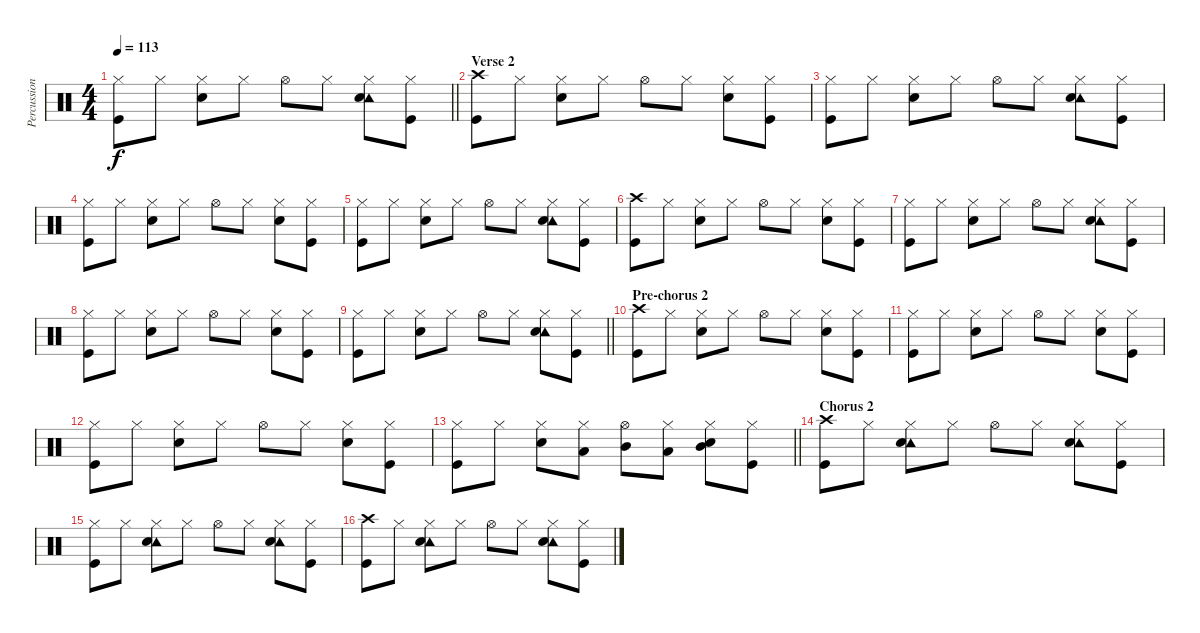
\track ("Percussion" "Percussion") {instrument percussion}
\staff {score}
\articulation defaults
\ts (4 4)
\tempo 113
\clef neutral
\barLineRight lightlight
\ks c
("Hi-Hat (closed)" "Kick (hit)").8{dy f} "Hi-Hat (closed)".8 ("Hi-Hat (closed)" "Snare (hit) 2").8 "Hi-Hat (closed)".8 "Hi-Hat (open)".8 "Hi-Hat (closed)".8 ("Hi-Hat (closed)" "Tambourine (hit)" "Snare (hit) 2").8 ("Hi-Hat (closed)" "Kick (hit)").8 |
\section ("" "Verse 2")
("Crash high (hit)" "Kick (hit)").8 "Hi-Hat (closed)".8 ("Hi-Hat (closed)" "Snare (hit) 2").8 "Hi-Hat (closed)".8 "Hi-Hat (open)".8 "Hi-Hat (closed)".8 ("Hi-Hat (closed)" "Snare (hit) 2").8 ("Hi-Hat (closed)" "Kick (hit)").8 |
("Hi-Hat (closed)" "Kick (hit)").8 "Hi-Hat (closed)".8 ("Hi-Hat (closed)" "Snare (hit) 2").8 "Hi-Hat (closed)".8 "Hi-Hat (open)".8 "Hi-Hat (closed)".8 ("Hi-Hat (closed)" "Tambourine (hit)" "Snare (hit) 2").8 ("Hi-Hat (closed)" "Kick (hit)").8 |
("Hi-Hat (closed)" "Kick (hit)").8 "Hi-Hat (closed)".8 ("Hi-Hat (closed)" "Snare (hit) 2").8 "Hi-Hat (closed)".8 "Hi-Hat (open)".8 "Hi-Hat (closed)".8 ("Hi-Hat (closed)" "Snare (hit) 2").8 ("Hi-Hat (closed)" "Kick (hit)").8 |
("Hi-Hat (closed)" "Kick (hit)").8 "Hi-Hat (closed)".8 ("Hi-Hat (closed)" "Snare (hit) 2").8 "Hi-Hat (closed)".8 "Hi-Hat (open)".8 "Hi-Hat (closed)".8 ("Hi-Hat (closed)" "Tambourine (hit)" "Snare (hit) 2").8 ("Hi-Hat (closed)" "Kick (hit)").8 |
("Crash high (hit)" "Kick (hit)").8 "Hi-Hat (closed)".8 ("Hi-Hat (closed)" "Snare (hit) 2").8 "Hi-Hat (closed)".8 "Hi-Hat (open)".8 "Hi-Hat (closed)".8 ("Hi-Hat (closed)" "Snare (hit) 2").8 ("Hi-Hat (closed)" "Kick (hit)").8 |
("Hi-Hat (closed)" "Kick (hit)").8 "Hi-Hat (closed)".8 ("Hi-Hat (closed)" "Snare (hit) 2").8 "Hi-Hat (closed)".8 "Hi-Hat (open)".8 "Hi-Hat (closed)".8 ("Hi-Hat (closed)" "Tambourine (hit)" "Snare (hit) 2").8 ("Hi-Hat (closed)" "Kick (hit)").8 |
("Hi-Hat (closed)" "Kick (hit)").8 "Hi-Hat (closed)".8 ("Hi-Hat (closed)" "Snare (hit) 2").8 "Hi-Hat (closed)".8 "Hi-Hat (open)".8 "Hi-Hat (closed)".8 ("Hi-Hat (closed)" "Snare (hit) 2").8 ("Hi-Hat (closed)" "Kick (hit)").8 |
\barLineRight lightlight
("Hi-Hat (closed)" "Kick (hit)").8 "Hi-Hat (closed)".8 ("Hi-Hat (closed)" "Snare (hit) 2").8 "Hi-Hat (closed)".8 "Hi-Hat (open)".8 "Hi-Hat (closed)".8 ("Hi-Hat (closed)" "Tambourine (hit)" "Snare (hit) 2").8 ("Hi-Hat (closed)" "Kick (hit)").8 |
\section ("" "Pre-chorus 2")
("Crash high (hit)" "Kick (hit)").8 "Hi-Hat (closed)".8 ("Hi-Hat (closed)" "Snare (hit) 2").8 "Hi-Hat (closed)".8 "Hi-Hat (open)".8 "Hi-Hat (closed)".8 ("Hi-Hat (closed)" "Snare (hit) 2").8 ("Hi-Hat (closed)" "Kick (hit)").8 |
("Hi-Hat (closed)" "Kick (hit)").8 "Hi-Hat (closed)".8 ("Hi-Hat (closed)" "Snare (hit) 2").8 "Hi-Hat (closed)".8 "Hi-Hat (open)".8 "Hi-Hat (closed)".8 ("Hi-Hat (closed)" "Snare (hit) 2").8 ("Hi-Hat (closed)" "Kick (hit)").8 |
("Hi-Hat (closed)" "Kick (hit)").8 "Hi-Hat (closed)".8 ("Hi-Hat (closed)" "Snare (hit) 2").8 "Hi-Hat (closed)".8 "Hi-Hat (open)".8 "Hi-Hat (closed)".8 ("Hi-Hat (closed)" "Snare (hit) 2").8 ("Hi-Hat (closed)" "Kick (hit)").8 |
\barLineRight lightlight
("Hi-Hat (closed)" "Kick (hit)").8 "Hi-Hat (closed)".8 ("Hi-Hat (closed)" "Snare (hit) 2").8 ("Hi-Hat (closed)" "Low Tom (hit)").8 ("Hi-Hat (open)" "Mid Tom (hit)").8 ("Hi-Hat (closed)" "Low Tom (hit)").8 ("Hi-Hat (closed)" "Mid Tom (hit)" "Snare (hit) 2").8 ("Hi-Hat (closed)" "Kick (hit)").8 |
\section ("" "Chorus 2")
("Crash high (hit)" "Kick (hit)").8 "Hi-Hat (closed)".8 ("Hi-Hat (closed)" "Tambourine (hit)" "Snare (hit) 2").8 "Hi-Hat (closed)".8 "Hi-Hat (open)".8 "Hi-Hat (closed)".8 ("Hi-Hat (closed)" "Tambourine (hit)" "Snare (hit) 2").8 ("Hi-Hat (closed)" "Kick (hit)").8 |
("Hi-Hat (closed)" "Kick (hit)").8 "Hi-Hat (closed)".8 ("Hi-Hat (closed)" "Tambourine (hit)" "Snare (hit) 2").8 "Hi-Hat (closed)".8 "Hi-Hat (open)".8 "Hi-Hat (closed)".8 ("Hi-Hat (closed)" "Tambourine (hit)" "Snare (hit) 2").8 ("Hi-Hat (closed)" "Kick (hit)").8 |
("Crash high (hit)" "Kick (hit)").8 "Hi-Hat (closed)".8 ("Hi-Hat (closed)" "Tambourine (hit)" "Snare (hit) 2").8 "Hi-Hat (closed)".8 "Hi-Hat (open)".8 "Hi-Hat (closed)".8 ("Hi-Hat (closed)" "Tambourine (hit)" "Snare (hit) 2").8 ("Hi-Hat (closed)" "Kick (hit)").8
